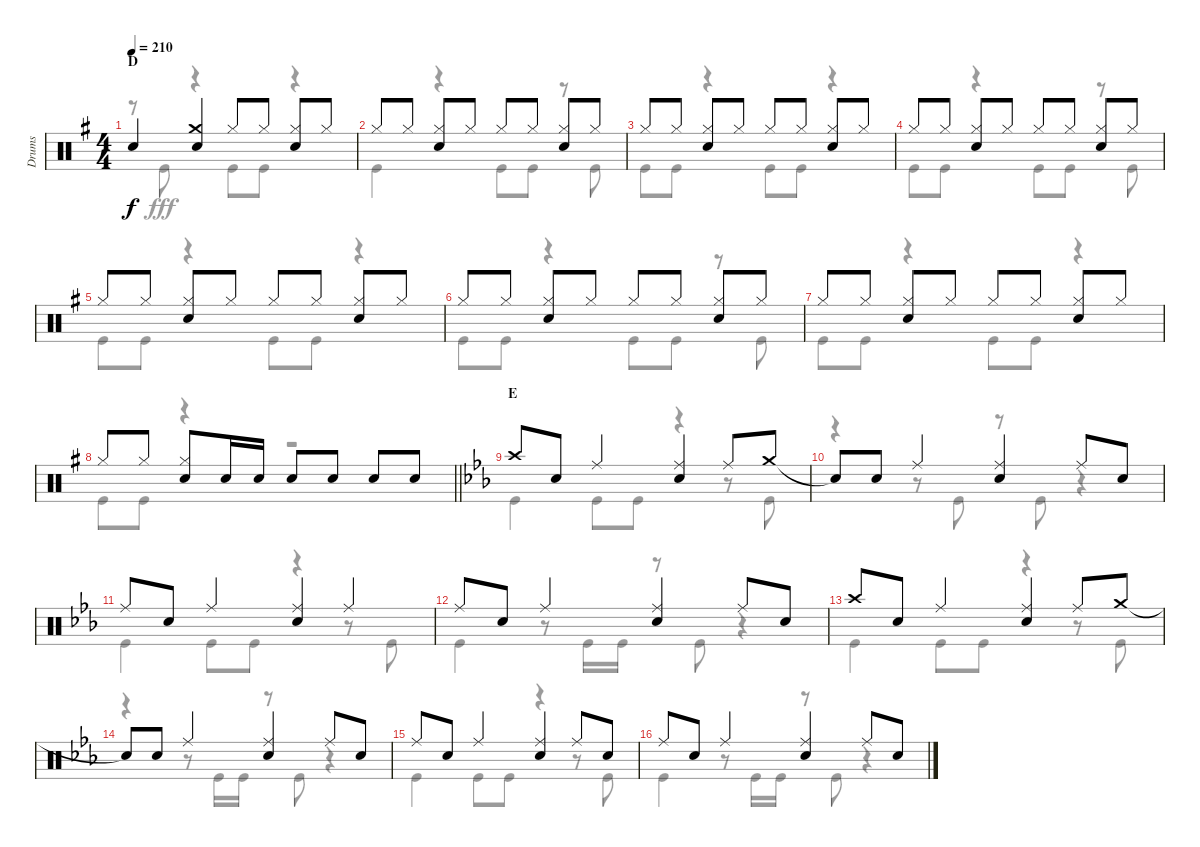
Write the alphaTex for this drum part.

\track ("Drums" "Drums") {instrument percussion}
\staff {score}
\articulation defaults
\voice
\ts (4 4)
\section ("" "D")
\tempo 210
\clef neutral
\ks g "Snare (hit)"{t}.4{dy f}
("Crash medium (hit)" "Snare (hit) 2").4 "Hi-Hat (closed)".8 "Hi-Hat (closed)".8 ("Hi-Hat (closed)" "Snare (hit) 2").8 "Hi-Hat (closed)".8 |
"Hi-Hat (closed)".8 "Hi-Hat (closed)".8 ("Hi-Hat (closed)" "Snare (hit) 2").8 "Hi-Hat (closed)".8 "Hi-Hat (closed)".8 "Hi-Hat (closed)".8 ("Hi-Hat (closed)" "Snare (hit) 2").8 "Hi-Hat (closed)".8 |
"Hi-Hat (closed)".8 "Hi-Hat (closed)".8 ("Hi-Hat (closed)" "Snare (hit) 2").8 "Hi-Hat (closed)".8 "Hi-Hat (closed)".8 "Hi-Hat (closed)".8 ("Hi-Hat (closed)" "Snare (hit) 2").8 "Hi-Hat (closed)".8 |
"Hi-Hat (closed)".8 "Hi-Hat (closed)".8 ("Hi-Hat (closed)" "Snare (hit) 2").8 "Hi-Hat (closed)".8 "Hi-Hat (closed)".8 "Hi-Hat (closed)".8 ("Hi-Hat (closed)" "Snare (hit) 2").8 "Hi-Hat (closed)".8 |
"Hi-Hat (closed)".8 "Hi-Hat (closed)".8 ("Hi-Hat (closed)" "Snare (hit) 2").8 "Hi-Hat (closed)".8 "Hi-Hat (closed)".8 "Hi-Hat (closed)".8 ("Hi-Hat (closed)" "Snare (hit) 2").8 "Hi-Hat (closed)".8 |
"Hi-Hat (closed)".8 "Hi-Hat (closed)".8 ("Hi-Hat (closed)" "Snare (hit) 2").8 "Hi-Hat (closed)".8 "Hi-Hat (closed)".8 "Hi-Hat (closed)".8 ("Hi-Hat (closed)" "Snare (hit) 2").8 "Hi-Hat (closed)".8 |
"Hi-Hat (closed)".8 "Hi-Hat (closed)".8 ("Hi-Hat (closed)" "Snare (hit) 2").8 "Hi-Hat (closed)".8 "Hi-Hat (closed)".8 "Hi-Hat (closed)".8 ("Hi-Hat (closed)" "Snare (hit) 2").8 "Hi-Hat (closed)".8 |
\barLineRight lightlight "Hi-Hat (closed)".8 "Hi-Hat (closed)".8
("Hi-Hat (closed)" "Snare (hit) 2").8 "Snare (hit) 2".16 "Snare (hit) 2".16 "Snare (hit) 2".8 "Snare (hit) 2".8 "Snare (hit) 2".8 "Snare (hit) 2".8 |
\section ("" "E")
\ks eb "Crash high (hit)".8 "Snare (hit) 2".8 "Ride (middle)".4
("Ride (middle)" "Snare (hit) 2").4 "Ride (middle)".8 "Crash medium (hit)".8 |
"Snare (hit)"{t}.8 "Snare (hit) 2".8 "Ride (middle)".4 ("Ride (middle)" "Snare (hit) 2").4 "Ride (middle)".8 "Snare (hit) 2".8 |
"Ride (middle)".8 "Snare (hit) 2".8 "Ride (middle)".4 ("Ride (middle)" "Snare (hit) 2").4 "Ride (middle)".4 |
"Ride (middle)".8 "Snare (hit) 2".8 "Ride (middle)".4 ("Ride (middle)" "Snare (hit) 2").4 "Ride (middle)".8 "Snare (hit) 2".8 |
"Crash high (hit)".8 "Snare (hit) 2".8 "Ride (middle)".4 ("Ride (middle)" "Snare (hit) 2").4 "Ride (middle)".8 "Crash medium (hit)".8 |
"Snare (hit)"{t}.8 "Snare (hit) 2".8 "Ride (middle)".4 ("Ride (middle)" "Snare (hit) 2").4 "Ride (middle)".8 "Snare (hit) 2".8 |
"Ride (middle)".8 "Snare (hit) 2".8 "Ride (middle)".4 ("Ride (middle)" "Snare (hit) 2").4 "Ride (middle)".8 "Snare (hit) 2".8 |
"Ride (middle)".8 "Snare (hit) 2".8 "Ride (middle)".4 ("Ride (middle)" "Snare (hit) 2").4 "Ride (middle)".8 "Snare (hit) 2".8
\voice
\clef neutral
\ottava regular
\simile none
\ks g
r.8{dy fff} "Kick (hit)".8 r.4 "Kick (hit)".8 "Kick (hit)".8 r.4 |
"Kick (hit)".4 r.4 "Kick (hit)".8 "Kick (hit)".8 r.8 "Kick (hit)".8 |
"Kick (hit)".8 "Kick (hit)".8 r.4 "Kick (hit)".8 "Kick (hit)".8 r.4 |
"Kick (hit)".8 "Kick (hit)".8 r.4 "Kick (hit)".8 "Kick (hit)".8 r.8 "Kick (hit)".8 |
"Kick (hit)".8 "Kick (hit)".8 r.4 "Kick (hit)".8 "Kick (hit)".8 r.4 |
"Kick (hit)".8 "Kick (hit)".8 r.4 "Kick (hit)".8 "Kick (hit)".8 r.8 "Kick (hit)".8 |
"Kick (hit)".8 "Kick (hit)".8 r.4 "Kick (hit)".8 "Kick (hit)".8 r.4 |
\barLineRight lightlight "Kick (hit)".8 "Kick (hit)".8
r.4 r.2 |
\ks eb "Kick (hit)".4 "Kick (hit)".8 "Kick (hit)".8
r.4 r.8 "Kick (hit)".8 |
r.4 r.8 "Kick (hit)".8 r.8 "Kick (hit)".8 r.4 |
"Kick (hit)".4 "Kick (hit)".8 "Kick (hit)".8 r.4 r.8 "Kick (hit)".8 |
"Kick (hit)".4 r.8 "Kick (hit)".16 "Kick (hit)".16 r.8 "Kick (hit)".8 r.4 |
"Kick (hit)".4 "Kick (hit)".8 "Kick (hit)".8 r.4 r.8 "Kick (hit)".8 |
r.4 r.8 "Kick (hit)".16 "Kick (hit)".16 r.8 "Kick (hit)".8 r.4 |
"Kick (hit)".4 "Kick (hit)".8 "Kick (hit)".8 r.4 r.8 "Kick (hit)".8 |
"Kick (hit)".4 r.8 "Kick (hit)".16 "Kick (hit)".16 r.8 "Kick (hit)".8 r.4
